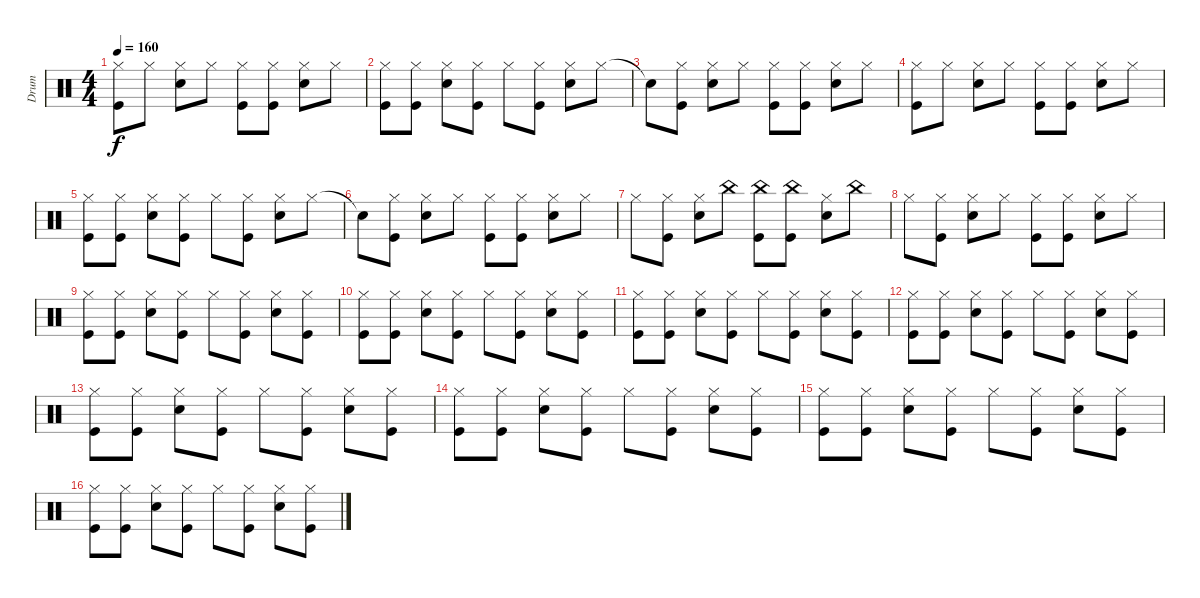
\track ("Drum" "Drum") {instrument percussion}
\staff {score}
\articulation defaults
\ts (4 4)
\tempo 160
\clef neutral
\ks c
("Hi-Hat (closed)" "Kick (hit)").8{dy f} "Hi-Hat (closed)".8 ("Hi-Hat (closed)" "Electric Snare (hit)").8 "Hi-Hat (closed)".8 ("Hi-Hat (closed)" "Kick (hit)").8 ("Hi-Hat (closed)" "Kick (hit)").8 ("Hi-Hat (closed)" "Electric Snare (hit)").8 "Hi-Hat (closed)".8 |
("Hi-Hat (closed)" "Kick (hit)").8 ("Hi-Hat (closed)" "Kick (hit)").8 ("Hi-Hat (closed)" "Electric Snare (hit)").8 ("Hi-Hat (closed)" "Kick (hit)").8 "Hi-Hat (closed)".8 ("Hi-Hat (closed)" "Kick (hit)").8 ("Hi-Hat (closed)" "Electric Snare (hit)").8 "Hi-Hat (closed)".8 |
"Snare (hit)"{t}.8 ("Hi-Hat (closed)" "Kick (hit)").8 ("Hi-Hat (closed)" "Electric Snare (hit)").8 "Hi-Hat (closed)".8 ("Hi-Hat (closed)" "Kick (hit)").8 ("Hi-Hat (closed)" "Kick (hit)").8 ("Hi-Hat (closed)" "Electric Snare (hit)").8 "Hi-Hat (closed)".8 |
("Hi-Hat (closed)" "Kick (hit)").8 "Hi-Hat (closed)".8 ("Hi-Hat (closed)" "Electric Snare (hit)").8 "Hi-Hat (closed)".8 ("Hi-Hat (closed)" "Kick (hit)").8 ("Hi-Hat (closed)" "Kick (hit)").8 ("Hi-Hat (closed)" "Electric Snare (hit)").8 "Hi-Hat (closed)".8 |
("Hi-Hat (closed)" "Kick (hit)").8 ("Hi-Hat (closed)" "Kick (hit)").8 ("Hi-Hat (closed)" "Electric Snare (hit)").8 ("Hi-Hat (closed)" "Kick (hit)").8 "Hi-Hat (closed)".8 ("Hi-Hat (closed)" "Kick (hit)").8 ("Hi-Hat (closed)" "Electric Snare (hit)").8 "Hi-Hat (closed)".8 |
"Snare (hit)"{t}.8 ("Hi-Hat (closed)" "Kick (hit)").8 ("Hi-Hat (closed)" "Electric Snare (hit)").8 "Hi-Hat (closed)".8 ("Hi-Hat (closed)" "Kick (hit)").8 ("Hi-Hat (closed)" "Kick (hit)").8 ("Hi-Hat (closed)" "Electric Snare (hit)").8 "Hi-Hat (closed)".8 |
"Hi-Hat (closed)".8 ("Hi-Hat (closed)" "Kick (hit)").8 ("Hi-Hat (closed)" "Electric Snare (hit)").8 "China (hit)".8 ("China (hit)" "Kick (hit)").8 ("China (hit)" "Kick (hit)").8 ("Hi-Hat (closed)" "Electric Snare (hit)").8 "China (hit)".8 |
"Hi-Hat (closed)".8 ("Hi-Hat (closed)" "Kick (hit)").8 ("Hi-Hat (closed)" "Electric Snare (hit)").8 "Hi-Hat (closed)".8 ("Hi-Hat (closed)" "Kick (hit)").8 ("Hi-Hat (closed)" "Kick (hit)").8 ("Hi-Hat (closed)" "Electric Snare (hit)").8 "Hi-Hat (closed)".8 |
("Hi-Hat (closed)" "Kick (hit)").8 ("Hi-Hat (closed)" "Kick (hit)").8 ("Hi-Hat (closed)" "Electric Snare (hit)").8 ("Hi-Hat (closed)" "Kick (hit)").8 "Hi-Hat (closed)".8 ("Hi-Hat (closed)" "Kick (hit)").8 ("Hi-Hat (closed)" "Electric Snare (hit)").8 ("Hi-Hat (closed)" "Kick (hit)").8 |
("Hi-Hat (closed)" "Kick (hit)").8 ("Hi-Hat (closed)" "Kick (hit)").8 ("Hi-Hat (closed)" "Electric Snare (hit)").8 ("Hi-Hat (closed)" "Kick (hit)").8 "Hi-Hat (closed)".8 ("Hi-Hat (closed)" "Kick (hit)").8 ("Hi-Hat (closed)" "Electric Snare (hit)").8 ("Hi-Hat (closed)" "Kick (hit)").8 |
("Hi-Hat (closed)" "Kick (hit)").8 ("Hi-Hat (closed)" "Kick (hit)").8 ("Hi-Hat (closed)" "Electric Snare (hit)").8 ("Hi-Hat (closed)" "Kick (hit)").8 "Hi-Hat (closed)".8 ("Hi-Hat (closed)" "Kick (hit)").8 ("Hi-Hat (closed)" "Electric Snare (hit)").8 ("Hi-Hat (closed)" "Kick (hit)").8 |
("Hi-Hat (closed)" "Kick (hit)").8 ("Hi-Hat (closed)" "Kick (hit)").8 ("Hi-Hat (closed)" "Electric Snare (hit)").8 ("Hi-Hat (closed)" "Kick (hit)").8 "Hi-Hat (closed)".8 ("Hi-Hat (closed)" "Kick (hit)").8 ("Hi-Hat (closed)" "Electric Snare (hit)").8 ("Hi-Hat (closed)" "Kick (hit)").8 |
("Hi-Hat (closed)" "Kick (hit)").8 ("Hi-Hat (closed)" "Kick (hit)").8 ("Hi-Hat (closed)" "Electric Snare (hit)").8 ("Hi-Hat (closed)" "Kick (hit)").8 "Hi-Hat (closed)".8 ("Hi-Hat (closed)" "Kick (hit)").8 ("Hi-Hat (closed)" "Electric Snare (hit)").8 ("Hi-Hat (closed)" "Kick (hit)").8 |
("Hi-Hat (closed)" "Kick (hit)").8 ("Hi-Hat (closed)" "Kick (hit)").8 ("Hi-Hat (closed)" "Electric Snare (hit)").8 ("Hi-Hat (closed)" "Kick (hit)").8 "Hi-Hat (closed)".8 ("Hi-Hat (closed)" "Kick (hit)").8 ("Hi-Hat (closed)" "Electric Snare (hit)").8 ("Hi-Hat (closed)" "Kick (hit)").8 |
("Hi-Hat (closed)" "Kick (hit)").8 ("Hi-Hat (closed)" "Kick (hit)").8 ("Hi-Hat (closed)" "Electric Snare (hit)").8 ("Hi-Hat (closed)" "Kick (hit)").8 "Hi-Hat (closed)".8 ("Hi-Hat (closed)" "Kick (hit)").8 ("Hi-Hat (closed)" "Electric Snare (hit)").8 ("Hi-Hat (closed)" "Kick (hit)").8 |
("Hi-Hat (closed)" "Kick (hit)").8 ("Hi-Hat (closed)" "Kick (hit)").8 ("Hi-Hat (closed)" "Electric Snare (hit)").8 ("Hi-Hat (closed)" "Kick (hit)").8 "Hi-Hat (closed)".8 ("Hi-Hat (closed)" "Kick (hit)").8 ("Hi-Hat (closed)" "Electric Snare (hit)").8 ("Hi-Hat (closed)" "Kick (hit)").8
